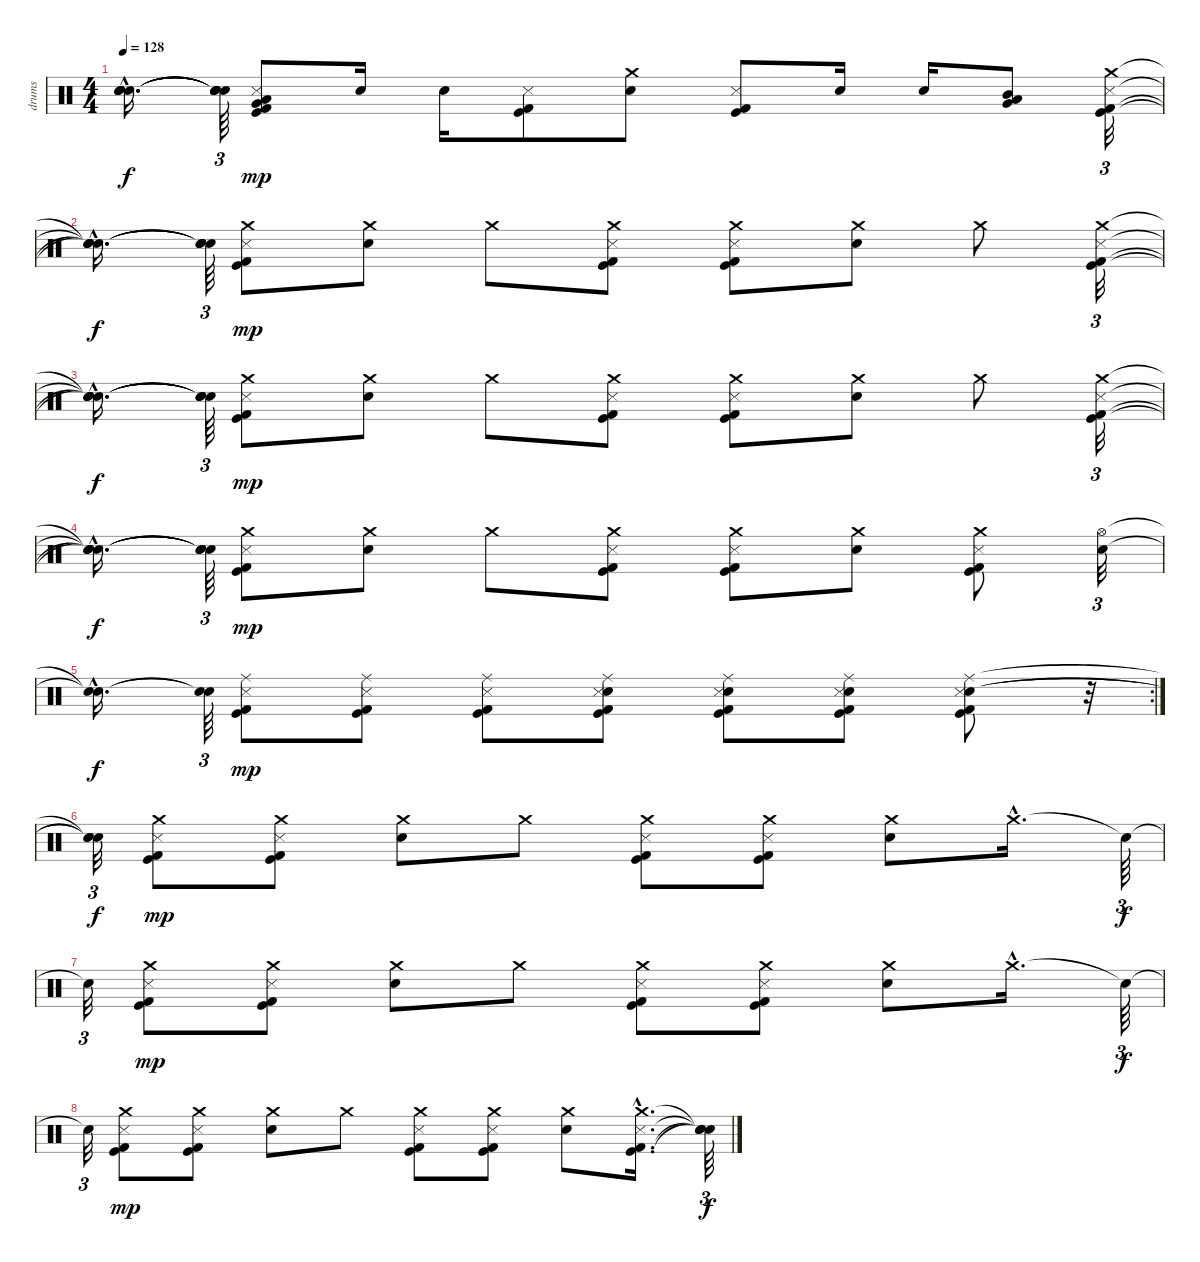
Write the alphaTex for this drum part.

\track ("drums" "drums") {instrument percussion}
\staff {score}
\articulation defaults
\ts (4 4)
\tempo 128
\clef neutral
\ks c
("Snare (hit)"{hac t} "Snare (hit)"{hac t} "Snare (hit)"{hac t} "Snare (hit)"{hac t} "Snare (hit)"{hac t}).16{d dy f} ("Snare (hit)"{t} "Snare (hit)"{t} "Snare (hit)"{t} "Snare (hit)"{t} "Snare (hit)"{t}).64{tu (3 2)} ("Very Low Tom (hit)" "Low Tom (hit)" "Metronome (hit)" "Kick (hit)" "Kick (hit) 2").8{dy mp} "Snare (hit) 2".16 "Snare (hit) 2".16 ("Metronome (hit)" "Kick (hit)" "Kick (hit) 2").8 ("Snare (hit) 2" "Crash medium (hit)").8 ("Metronome (hit)" "Kick (hit)" "Kick (hit) 2").8 "Snare (hit) 2".16 "Snare (hit) 2".16 ("Very Low Tom (hit)" "Low Tom (hit)" "Mid Tom (hit)").8 ("Crash medium (hit)" "Metronome (hit)" "Kick (hit)" "Kick (hit) 2").32{tu (3 2)} |
("Snare (hit)"{hac t} "Snare (hit)"{hac t} "Snare (hit)"{hac t} "Snare (hit)"{hac t}).16{d dy f} ("Snare (hit)"{t} "Snare (hit)"{t} "Snare (hit)"{t} "Snare (hit)"{t}).64{tu (3 2)} ("Crash medium (hit)" "Metronome (hit)" "Kick (hit)" "Kick (hit) 2").8{dy mp} ("Snare (hit) 2" "Crash medium (hit)").8 "Crash medium (hit)".8 ("Crash medium (hit)" "Metronome (hit)" "Kick (hit)" "Kick (hit) 2").8 ("Crash medium (hit)" "Metronome (hit)" "Kick (hit)" "Kick (hit) 2").8 ("Snare (hit) 2" "Crash medium (hit)").8 "Crash medium (hit)".8 ("Crash medium (hit)" "Metronome (hit)" "Kick (hit)" "Kick (hit) 2").32{tu (3 2)} |
("Snare (hit)"{hac t} "Snare (hit)"{hac t} "Snare (hit)"{hac t} "Snare (hit)"{hac t}).16{d dy f} ("Snare (hit)"{t} "Snare (hit)"{t} "Snare (hit)"{t} "Snare (hit)"{t}).64{tu (3 2)} ("Crash medium (hit)" "Metronome (hit)" "Kick (hit)" "Kick (hit) 2").8{dy mp} ("Snare (hit) 2" "Crash medium (hit)").8 "Crash medium (hit)".8 ("Crash medium (hit)" "Metronome (hit)" "Kick (hit)" "Kick (hit) 2").8 ("Crash medium (hit)" "Metronome (hit)" "Kick (hit)" "Kick (hit) 2").8 ("Snare (hit) 2" "Crash medium (hit)").8 "Crash medium (hit)".8 ("Crash medium (hit)" "Metronome (hit)" "Kick (hit)" "Kick (hit) 2").32{tu (3 2)} |
("Snare (hit)"{hac t} "Snare (hit)"{hac t} "Snare (hit)"{hac t} "Snare (hit)"{hac t}).16{d dy f} ("Snare (hit)"{t} "Snare (hit)"{t} "Snare (hit)"{t} "Snare (hit)"{t}).64{tu (3 2)} ("Crash medium (hit)" "Metronome (hit)" "Kick (hit)" "Kick (hit) 2").8{dy mp} ("Snare (hit) 2" "Crash medium (hit)").8 "Crash medium (hit)".8 ("Crash medium (hit)" "Metronome (hit)" "Kick (hit)" "Kick (hit) 2").8 ("Crash medium (hit)" "Metronome (hit)" "Kick (hit)" "Kick (hit) 2").8 ("Snare (hit) 2" "Crash medium (hit)").8 ("Crash medium (hit)" "Metronome (hit)" "Kick (hit)" "Kick (hit) 2").8 ("Snare (hit) 2" "Hi-Hat (open)").32{tu (3 2)} |
\rc 2
("Snare (hit)"{hac t} "Snare (hit)"{hac t}).16{d dy f} ("Snare (hit)"{t} "Snare (hit)"{t}).64{tu (3 2)} ("Ride (middle)" "Metronome (hit)" "Kick (hit)" "Kick (hit) 2").8{dy mp} ("Ride (middle)" "Metronome (hit)" "Kick (hit)" "Kick (hit) 2").8 ("Ride (middle)" "Metronome (hit)" "Kick (hit)" "Kick (hit) 2").8 ("Snare (hit) 2" "Ride (middle)" "Metronome (hit)" "Kick (hit)" "Kick (hit) 2").8 ("Snare (hit) 2" "Ride (middle)" "Metronome (hit)" "Kick (hit)" "Kick (hit) 2").8 ("Snare (hit) 2" "Ride (middle)" "Metronome (hit)" "Kick (hit)" "Kick (hit) 2").8 ("Snare (hit) 2" "Ride (middle)" "Metronome (hit)" "Kick (hit)" "Kick (hit) 2").8 r.32{tu (3 2)} |
("Snare (hit)"{t} "Snare (hit)"{t} "Snare (hit)"{t}).32{tu (3 2) dy f} ("Crash medium (hit)" "Metronome (hit)" "Kick (hit)" "Kick (hit) 2").8{dy mp} ("Crash medium (hit)" "Metronome (hit)" "Kick (hit)" "Kick (hit) 2").8 ("Snare (hit) 2" "Crash medium (hit)").8 "Crash medium (hit)".8 ("Crash medium (hit)" "Metronome (hit)" "Kick (hit)" "Kick (hit) 2").8 ("Crash medium (hit)" "Metronome (hit)" "Kick (hit)" "Kick (hit) 2").8 ("Snare (hit) 2" "Crash medium (hit)").8 "Crash medium (hit)"{hac}.16{d} "Snare (hit)"{t}.64{tu (3 2) dy f} |
"Snare (hit)"{t}.32{tu (3 2)} ("Crash medium (hit)" "Metronome (hit)" "Kick (hit)" "Kick (hit) 2").8{dy mp} ("Crash medium (hit)" "Metronome (hit)" "Kick (hit)" "Kick (hit) 2").8 ("Snare (hit) 2" "Crash medium (hit)").8 "Crash medium (hit)".8 ("Crash medium (hit)" "Metronome (hit)" "Kick (hit)" "Kick (hit) 2").8 ("Crash medium (hit)" "Metronome (hit)" "Kick (hit)" "Kick (hit) 2").8 ("Snare (hit) 2" "Crash medium (hit)").8 "Crash medium (hit)"{hac}.16{d} "Snare (hit)"{t}.64{tu (3 2) dy f} |
"Snare (hit)"{t}.32{tu (3 2)} ("Crash medium (hit)" "Metronome (hit)" "Kick (hit)" "Kick (hit) 2").8{dy mp} ("Crash medium (hit)" "Metronome (hit)" "Kick (hit)" "Kick (hit) 2").8 ("Snare (hit) 2" "Crash medium (hit)").8 "Crash medium (hit)".8 ("Crash medium (hit)" "Metronome (hit)" "Kick (hit)" "Kick (hit) 2").8 ("Crash medium (hit)" "Metronome (hit)" "Kick (hit)" "Kick (hit) 2").8 ("Snare (hit) 2" "Crash medium (hit)").8 ("Crash medium (hit)"{hac} "Metronome (hit)"{hac} "Kick (hit)"{hac} "Kick (hit) 2"{hac}).16{d} ("Snare (hit)"{t} "Snare (hit)"{t} "Snare (hit)"{t} "Snare (hit)"{t}).64{tu (3 2) dy f}
